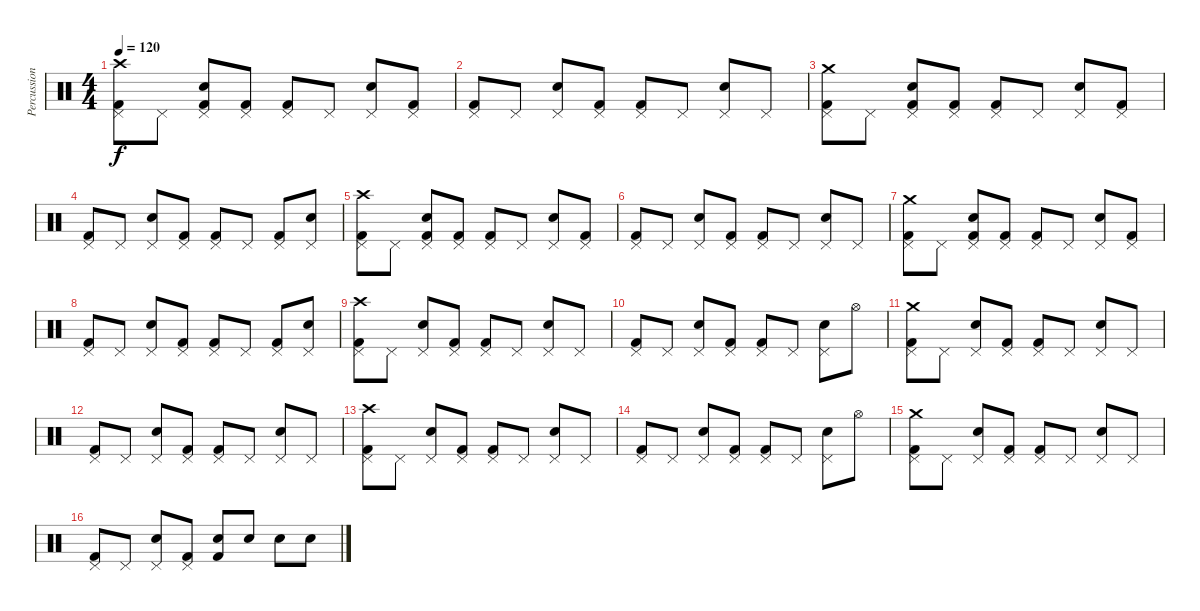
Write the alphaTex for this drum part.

\track ("Percussion" "Percussion") {instrument percussion}
\staff {score}
\articulation defaults
\ts (4 4)
\tempo 120
\clef neutral
\ks c
("Crash high (hit)" "Pedal Hi-Hat (hit)" "Kick (hit) 2").8{dy f} "Pedal Hi-Hat (hit)".8 ("Snare (hit) 2" "Pedal Hi-Hat (hit)" "Kick (hit) 2").8 ("Pedal Hi-Hat (hit)" "Kick (hit) 2").8 ("Pedal Hi-Hat (hit)" "Kick (hit) 2").8 "Pedal Hi-Hat (hit)".8 ("Snare (hit) 2" "Pedal Hi-Hat (hit)").8 ("Pedal Hi-Hat (hit)" "Kick (hit) 2").8 |
("Pedal Hi-Hat (hit)" "Kick (hit) 2").8 "Pedal Hi-Hat (hit)".8 ("Snare (hit) 2" "Pedal Hi-Hat (hit)").8 ("Pedal Hi-Hat (hit)" "Kick (hit) 2").8 ("Pedal Hi-Hat (hit)" "Kick (hit) 2").8 "Pedal Hi-Hat (hit)".8 ("Snare (hit) 2" "Pedal Hi-Hat (hit)").8 "Pedal Hi-Hat (hit)".8 |
("Crash medium (hit)" "Pedal Hi-Hat (hit)" "Kick (hit) 2").8 "Pedal Hi-Hat (hit)".8 ("Snare (hit) 2" "Pedal Hi-Hat (hit)" "Kick (hit) 2").8 ("Pedal Hi-Hat (hit)" "Kick (hit) 2").8 ("Pedal Hi-Hat (hit)" "Kick (hit) 2").8 "Pedal Hi-Hat (hit)".8 ("Snare (hit) 2" "Pedal Hi-Hat (hit)").8 ("Pedal Hi-Hat (hit)" "Kick (hit) 2").8 |
("Pedal Hi-Hat (hit)" "Kick (hit) 2").8 "Pedal Hi-Hat (hit)".8 ("Snare (hit) 2" "Pedal Hi-Hat (hit)").8 ("Pedal Hi-Hat (hit)" "Kick (hit) 2").8 ("Pedal Hi-Hat (hit)" "Kick (hit) 2").8 "Pedal Hi-Hat (hit)".8 ("Pedal Hi-Hat (hit)" "Kick (hit) 2").8 ("Snare (hit) 2" "Pedal Hi-Hat (hit)").8 |
("Crash high (hit)" "Pedal Hi-Hat (hit)" "Kick (hit) 2").8 "Pedal Hi-Hat (hit)".8 ("Snare (hit) 2" "Pedal Hi-Hat (hit)" "Kick (hit) 2").8 ("Pedal Hi-Hat (hit)" "Kick (hit) 2").8 ("Pedal Hi-Hat (hit)" "Kick (hit) 2").8 "Pedal Hi-Hat (hit)".8 ("Snare (hit) 2" "Pedal Hi-Hat (hit)").8 ("Pedal Hi-Hat (hit)" "Kick (hit) 2").8 |
("Pedal Hi-Hat (hit)" "Kick (hit) 2").8 "Pedal Hi-Hat (hit)".8 ("Snare (hit) 2" "Pedal Hi-Hat (hit)").8 ("Pedal Hi-Hat (hit)" "Kick (hit) 2").8 ("Pedal Hi-Hat (hit)" "Kick (hit) 2").8 "Pedal Hi-Hat (hit)".8 ("Snare (hit) 2" "Pedal Hi-Hat (hit)").8 "Pedal Hi-Hat (hit)".8 |
("Crash medium (hit)" "Pedal Hi-Hat (hit)" "Kick (hit) 2").8 "Pedal Hi-Hat (hit)".8 ("Snare (hit) 2" "Pedal Hi-Hat (hit)" "Kick (hit) 2").8 ("Pedal Hi-Hat (hit)" "Kick (hit) 2").8 ("Pedal Hi-Hat (hit)" "Kick (hit) 2").8 "Pedal Hi-Hat (hit)".8 ("Snare (hit) 2" "Pedal Hi-Hat (hit)").8 ("Pedal Hi-Hat (hit)" "Kick (hit) 2").8 |
("Pedal Hi-Hat (hit)" "Kick (hit) 2").8 "Pedal Hi-Hat (hit)".8 ("Snare (hit) 2" "Pedal Hi-Hat (hit)").8 ("Pedal Hi-Hat (hit)" "Kick (hit) 2").8 ("Pedal Hi-Hat (hit)" "Kick (hit) 2").8 "Pedal Hi-Hat (hit)".8 ("Pedal Hi-Hat (hit)" "Kick (hit) 2").8 ("Snare (hit) 2" "Pedal Hi-Hat (hit)").8 |
("Crash high (hit)" "Pedal Hi-Hat (hit)" "Kick (hit) 2").8 "Pedal Hi-Hat (hit)".8 ("Snare (hit) 2" "Pedal Hi-Hat (hit)").8 ("Pedal Hi-Hat (hit)" "Kick (hit) 2").8 ("Pedal Hi-Hat (hit)" "Kick (hit) 2").8 "Pedal Hi-Hat (hit)".8 ("Snare (hit) 2" "Pedal Hi-Hat (hit)").8 "Pedal Hi-Hat (hit)".8 |
("Pedal Hi-Hat (hit)" "Kick (hit) 2").8 "Pedal Hi-Hat (hit)".8 ("Snare (hit) 2" "Pedal Hi-Hat (hit)").8 ("Pedal Hi-Hat (hit)" "Kick (hit) 2").8 ("Pedal Hi-Hat (hit)" "Kick (hit) 2").8 "Pedal Hi-Hat (hit)".8 ("Snare (hit) 2" "Pedal Hi-Hat (hit)").8 "Hi-Hat (open)".8 |
("Crash medium (hit)" "Pedal Hi-Hat (hit)" "Kick (hit) 2").8 "Pedal Hi-Hat (hit)".8 ("Snare (hit) 2" "Pedal Hi-Hat (hit)").8 ("Pedal Hi-Hat (hit)" "Kick (hit) 2").8 ("Pedal Hi-Hat (hit)" "Kick (hit) 2").8 "Pedal Hi-Hat (hit)".8 ("Snare (hit) 2" "Pedal Hi-Hat (hit)").8 "Pedal Hi-Hat (hit)".8 |
("Pedal Hi-Hat (hit)" "Kick (hit) 2").8 "Pedal Hi-Hat (hit)".8 ("Snare (hit) 2" "Pedal Hi-Hat (hit)").8 ("Pedal Hi-Hat (hit)" "Kick (hit) 2").8 ("Pedal Hi-Hat (hit)" "Kick (hit) 2").8 "Pedal Hi-Hat (hit)".8 ("Snare (hit) 2" "Pedal Hi-Hat (hit)").8 "Pedal Hi-Hat (hit)".8 |
("Crash high (hit)" "Pedal Hi-Hat (hit)" "Kick (hit) 2").8 "Pedal Hi-Hat (hit)".8 ("Snare (hit) 2" "Pedal Hi-Hat (hit)").8 ("Pedal Hi-Hat (hit)" "Kick (hit) 2").8 ("Pedal Hi-Hat (hit)" "Kick (hit) 2").8 "Pedal Hi-Hat (hit)".8 ("Snare (hit) 2" "Pedal Hi-Hat (hit)").8 "Pedal Hi-Hat (hit)".8 |
("Pedal Hi-Hat (hit)" "Kick (hit) 2").8 "Pedal Hi-Hat (hit)".8 ("Snare (hit) 2" "Pedal Hi-Hat (hit)").8 ("Pedal Hi-Hat (hit)" "Kick (hit) 2").8 ("Pedal Hi-Hat (hit)" "Kick (hit) 2").8 "Pedal Hi-Hat (hit)".8 ("Snare (hit) 2" "Pedal Hi-Hat (hit)").8 "Hi-Hat (open)".8 |
("Crash medium (hit)" "Pedal Hi-Hat (hit)" "Kick (hit) 2").8 "Pedal Hi-Hat (hit)".8 ("Snare (hit) 2" "Pedal Hi-Hat (hit)").8 ("Pedal Hi-Hat (hit)" "Kick (hit) 2").8 ("Pedal Hi-Hat (hit)" "Kick (hit) 2").8 "Pedal Hi-Hat (hit)".8 ("Snare (hit) 2" "Pedal Hi-Hat (hit)").8 "Pedal Hi-Hat (hit)".8 |
("Pedal Hi-Hat (hit)" "Kick (hit) 2").8 "Pedal Hi-Hat (hit)".8 ("Snare (hit) 2" "Pedal Hi-Hat (hit)").8 ("Pedal Hi-Hat (hit)" "Kick (hit) 2").8 ("Snare (hit) 2" "Kick (hit) 2").8 "Snare (hit) 2".8 "Snare (hit) 2".8 "Snare (hit) 2".8
